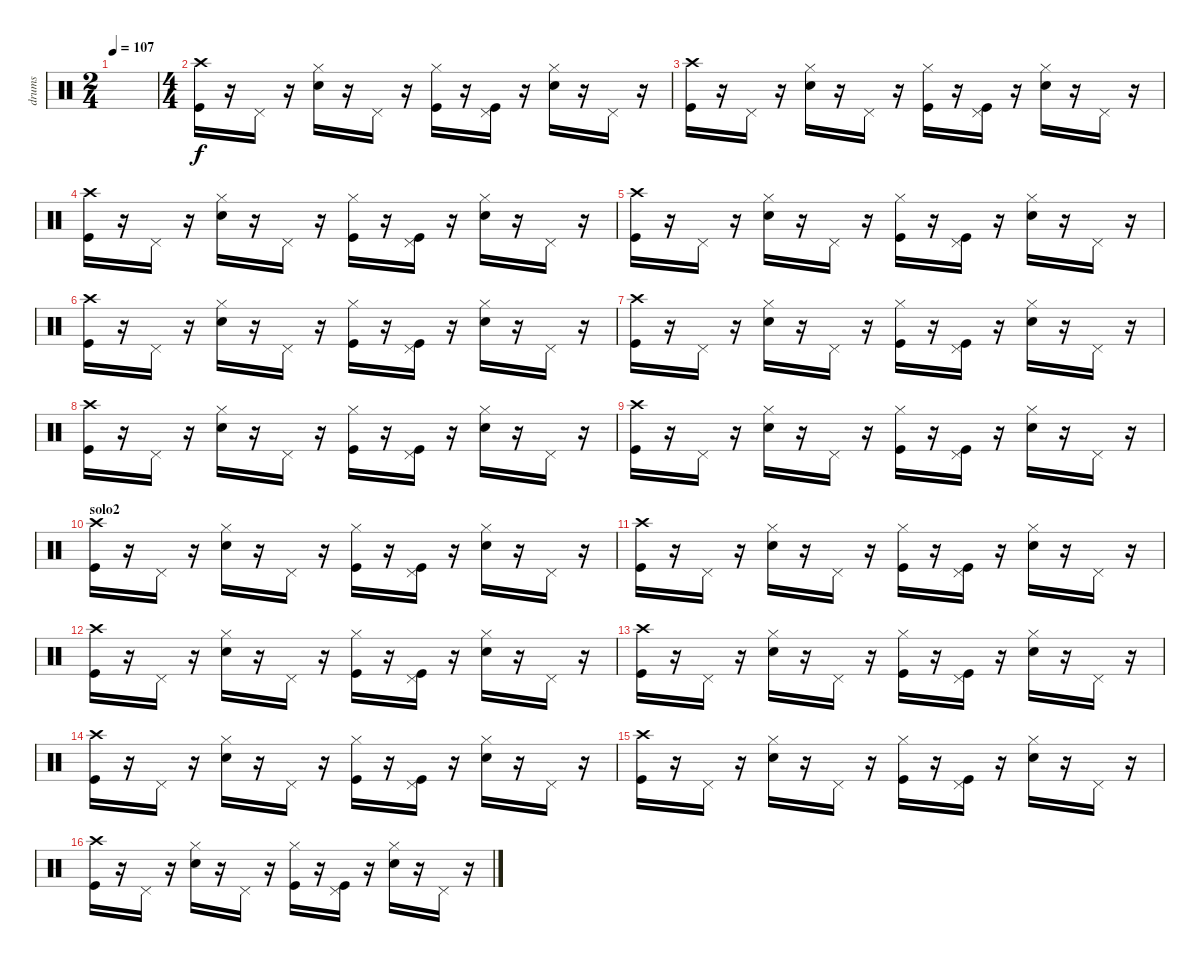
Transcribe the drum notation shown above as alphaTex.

\track ("drums" "drums") {instrument percussion}
\staff {score}
\articulation defaults
\ts (2 4)
\tempo 107
\clef neutral
\ks c
|
\ts (4 4)
("Crash high (hit)" "Kick (hit)").16 r.16 "Pedal Hi-Hat (hit)".16 r.16 ("Hi-Hat (closed)" "Snare (hit) 2").16 r.16 "Pedal Hi-Hat (hit)".16 r.16 ("Hi-Hat (closed)" "Kick (hit)").16 r.16 ("Pedal Hi-Hat (hit)" "Kick (hit)").16 r.16 ("Hi-Hat (closed)" "Snare (hit) 2").16 r.16 "Pedal Hi-Hat (hit)".16 r.16 |
("Crash high (hit)" "Kick (hit)").16 r.16 "Pedal Hi-Hat (hit)".16 r.16 ("Hi-Hat (closed)" "Snare (hit) 2").16 r.16 "Pedal Hi-Hat (hit)".16 r.16 ("Hi-Hat (closed)" "Kick (hit)").16 r.16 ("Pedal Hi-Hat (hit)" "Kick (hit)").16 r.16 ("Hi-Hat (closed)" "Snare (hit) 2").16 r.16 "Pedal Hi-Hat (hit)".16 r.16 |
("Crash high (hit)" "Kick (hit)").16 r.16 "Pedal Hi-Hat (hit)".16 r.16 ("Hi-Hat (closed)" "Snare (hit) 2").16 r.16 "Pedal Hi-Hat (hit)".16 r.16 ("Hi-Hat (closed)" "Kick (hit)").16 r.16 ("Pedal Hi-Hat (hit)" "Kick (hit)").16 r.16 ("Hi-Hat (closed)" "Snare (hit) 2").16 r.16 "Pedal Hi-Hat (hit)".16 r.16 |
("Crash high (hit)" "Kick (hit)").16 r.16 "Pedal Hi-Hat (hit)".16 r.16 ("Hi-Hat (closed)" "Snare (hit) 2").16 r.16 "Pedal Hi-Hat (hit)".16 r.16 ("Hi-Hat (closed)" "Kick (hit)").16 r.16 ("Pedal Hi-Hat (hit)" "Kick (hit)").16 r.16 ("Hi-Hat (closed)" "Snare (hit) 2").16 r.16 "Pedal Hi-Hat (hit)".16 r.16 |
("Crash high (hit)" "Kick (hit)").16 r.16 "Pedal Hi-Hat (hit)".16 r.16 ("Hi-Hat (closed)" "Snare (hit) 2").16 r.16 "Pedal Hi-Hat (hit)".16 r.16 ("Hi-Hat (closed)" "Kick (hit)").16 r.16 ("Pedal Hi-Hat (hit)" "Kick (hit)").16 r.16 ("Hi-Hat (closed)" "Snare (hit) 2").16 r.16 "Pedal Hi-Hat (hit)".16 r.16 |
("Crash high (hit)" "Kick (hit)").16 r.16 "Pedal Hi-Hat (hit)".16 r.16 ("Hi-Hat (closed)" "Snare (hit) 2").16 r.16 "Pedal Hi-Hat (hit)".16 r.16 ("Hi-Hat (closed)" "Kick (hit)").16 r.16 ("Pedal Hi-Hat (hit)" "Kick (hit)").16 r.16 ("Hi-Hat (closed)" "Snare (hit) 2").16 r.16 "Pedal Hi-Hat (hit)".16 r.16 |
("Crash high (hit)" "Kick (hit)").16 r.16 "Pedal Hi-Hat (hit)".16 r.16 ("Hi-Hat (closed)" "Snare (hit) 2").16 r.16 "Pedal Hi-Hat (hit)".16 r.16 ("Hi-Hat (closed)" "Kick (hit)").16 r.16 ("Pedal Hi-Hat (hit)" "Kick (hit)").16 r.16 ("Hi-Hat (closed)" "Snare (hit) 2").16 r.16 "Pedal Hi-Hat (hit)".16 r.16 |
("Crash high (hit)" "Kick (hit)").16 r.16 "Pedal Hi-Hat (hit)".16 r.16 ("Hi-Hat (closed)" "Snare (hit) 2").16 r.16 "Pedal Hi-Hat (hit)".16 r.16 ("Hi-Hat (closed)" "Kick (hit)").16 r.16 ("Pedal Hi-Hat (hit)" "Kick (hit)").16 r.16 ("Hi-Hat (closed)" "Snare (hit) 2").16 r.16 "Pedal Hi-Hat (hit)".16 r.16 |
\section ("" "solo2")
("Crash high (hit)" "Kick (hit)").16 r.16 "Pedal Hi-Hat (hit)".16 r.16 ("Hi-Hat (closed)" "Snare (hit) 2").16 r.16 "Pedal Hi-Hat (hit)".16 r.16 ("Hi-Hat (closed)" "Kick (hit)").16 r.16 ("Pedal Hi-Hat (hit)" "Kick (hit)").16 r.16 ("Hi-Hat (closed)" "Snare (hit) 2").16 r.16 "Pedal Hi-Hat (hit)".16 r.16 |
("Crash high (hit)" "Kick (hit)").16 r.16 "Pedal Hi-Hat (hit)".16 r.16 ("Hi-Hat (closed)" "Snare (hit) 2").16 r.16 "Pedal Hi-Hat (hit)".16 r.16 ("Hi-Hat (closed)" "Kick (hit)").16 r.16 ("Pedal Hi-Hat (hit)" "Kick (hit)").16 r.16 ("Hi-Hat (closed)" "Snare (hit) 2").16 r.16 "Pedal Hi-Hat (hit)".16 r.16 |
("Crash high (hit)" "Kick (hit)").16 r.16 "Pedal Hi-Hat (hit)".16 r.16 ("Hi-Hat (closed)" "Snare (hit) 2").16 r.16 "Pedal Hi-Hat (hit)".16 r.16 ("Hi-Hat (closed)" "Kick (hit)").16 r.16 ("Pedal Hi-Hat (hit)" "Kick (hit)").16 r.16 ("Hi-Hat (closed)" "Snare (hit) 2").16 r.16 "Pedal Hi-Hat (hit)".16 r.16 |
("Crash high (hit)" "Kick (hit)").16 r.16 "Pedal Hi-Hat (hit)".16 r.16 ("Hi-Hat (closed)" "Snare (hit) 2").16 r.16 "Pedal Hi-Hat (hit)".16 r.16 ("Hi-Hat (closed)" "Kick (hit)").16 r.16 ("Pedal Hi-Hat (hit)" "Kick (hit)").16 r.16 ("Hi-Hat (closed)" "Snare (hit) 2").16 r.16 "Pedal Hi-Hat (hit)".16 r.16 |
("Crash high (hit)" "Kick (hit)").16 r.16 "Pedal Hi-Hat (hit)".16 r.16 ("Hi-Hat (closed)" "Snare (hit) 2").16 r.16 "Pedal Hi-Hat (hit)".16 r.16 ("Hi-Hat (closed)" "Kick (hit)").16 r.16 ("Pedal Hi-Hat (hit)" "Kick (hit)").16 r.16 ("Hi-Hat (closed)" "Snare (hit) 2").16 r.16 "Pedal Hi-Hat (hit)".16 r.16 |
("Crash high (hit)" "Kick (hit)").16 r.16 "Pedal Hi-Hat (hit)".16 r.16 ("Hi-Hat (closed)" "Snare (hit) 2").16 r.16 "Pedal Hi-Hat (hit)".16 r.16 ("Hi-Hat (closed)" "Kick (hit)").16 r.16 ("Pedal Hi-Hat (hit)" "Kick (hit)").16 r.16 ("Hi-Hat (closed)" "Snare (hit) 2").16 r.16 "Pedal Hi-Hat (hit)".16 r.16 |
("Crash high (hit)" "Kick (hit)").16 r.16 "Pedal Hi-Hat (hit)".16 r.16 ("Hi-Hat (closed)" "Snare (hit) 2").16 r.16 "Pedal Hi-Hat (hit)".16 r.16 ("Hi-Hat (closed)" "Kick (hit)").16 r.16 ("Pedal Hi-Hat (hit)" "Kick (hit)").16 r.16 ("Hi-Hat (closed)" "Snare (hit) 2").16 r.16 "Pedal Hi-Hat (hit)".16 r.16
